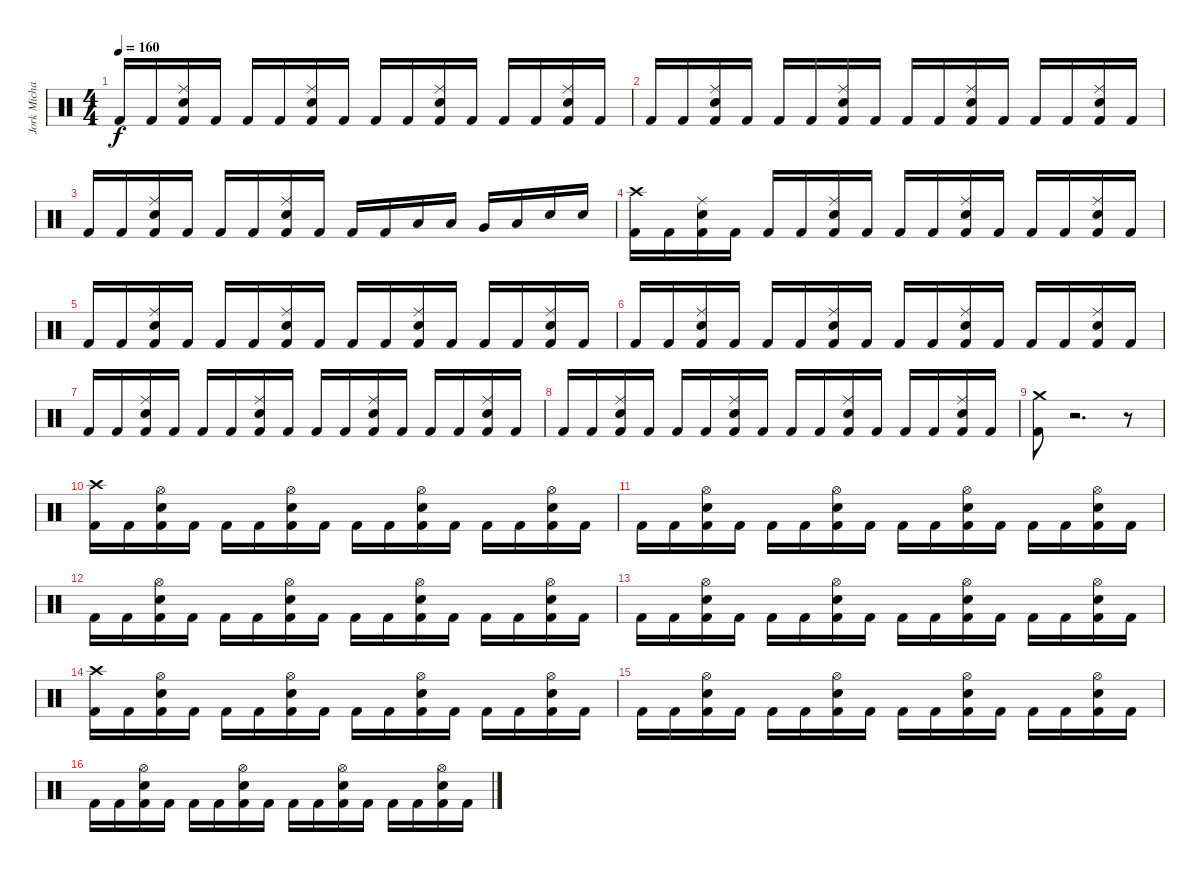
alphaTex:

\track ("Jork Michael" "Jork Micha") {instrument percussion}
\staff {score}
\articulation defaults
\ts (4 4)
\tempo 160
\clef neutral
\ks c "Kick (hit) 2".16{dy f} "Kick (hit) 2".16
("Ride (middle)" "Electric Snare (hit)" "Kick (hit) 2").16 "Kick (hit) 2".16 "Kick (hit) 2".16 "Kick (hit) 2".16 ("Ride (middle)" "Electric Snare (hit)" "Kick (hit) 2").16 "Kick (hit) 2".16 "Kick (hit) 2".16 "Kick (hit) 2".16 ("Ride (middle)" "Electric Snare (hit)" "Kick (hit) 2").16 "Kick (hit) 2".16 "Kick (hit) 2".16 "Kick (hit) 2".16 ("Ride (middle)" "Electric Snare (hit)" "Kick (hit) 2").16 "Kick (hit) 2".16 |
"Kick (hit) 2".16 "Kick (hit) 2".16 ("Ride (middle)" "Electric Snare (hit)" "Kick (hit) 2").16 "Kick (hit) 2".16 "Kick (hit) 2".16 "Kick (hit) 2".16 ("Ride (middle)" "Electric Snare (hit)" "Kick (hit) 2").16 "Kick (hit) 2".16 "Kick (hit) 2".16 "Kick (hit) 2".16 ("Ride (middle)" "Electric Snare (hit)" "Kick (hit) 2").16 "Kick (hit) 2".16 "Kick (hit) 2".16 "Kick (hit) 2".16 ("Ride (middle)" "Electric Snare (hit)" "Kick (hit) 2").16 "Kick (hit) 2".16 |
"Kick (hit) 2".16 "Kick (hit) 2".16 ("Ride (middle)" "Electric Snare (hit)" "Kick (hit) 2").16 "Kick (hit) 2".16 "Kick (hit) 2".16 "Kick (hit) 2".16 ("Ride (middle)" "Electric Snare (hit)" "Kick (hit) 2").16 "Kick (hit) 2".16 "Kick (hit) 2".16 "Kick (hit) 2".16 "Low Floor Tom (hit)".16 "Low Tom (hit)".16 "Very Low Tom (hit)".16 "Low Floor Tom (hit)".16 "Electric Snare (hit)".16 "Electric Snare (hit)".16 |
("Crash high (hit)" "Kick (hit) 2").16 "Kick (hit) 2".16 ("Ride (middle)" "Electric Snare (hit)" "Kick (hit) 2").16 "Kick (hit) 2".16 "Kick (hit) 2".16 "Kick (hit) 2".16 ("Ride (middle)" "Electric Snare (hit)" "Kick (hit) 2").16 "Kick (hit) 2".16 "Kick (hit) 2".16 "Kick (hit) 2".16 ("Ride (middle)" "Electric Snare (hit)" "Kick (hit) 2").16 "Kick (hit) 2".16 "Kick (hit) 2".16 "Kick (hit) 2".16 ("Ride (middle)" "Electric Snare (hit)" "Kick (hit) 2").16 "Kick (hit) 2".16 |
"Kick (hit) 2".16 "Kick (hit) 2".16 ("Ride (middle)" "Electric Snare (hit)" "Kick (hit) 2").16 "Kick (hit) 2".16 "Kick (hit) 2".16 "Kick (hit) 2".16 ("Ride (middle)" "Electric Snare (hit)" "Kick (hit) 2").16 "Kick (hit) 2".16 "Kick (hit) 2".16 "Kick (hit) 2".16 ("Ride (middle)" "Electric Snare (hit)" "Kick (hit) 2").16 "Kick (hit) 2".16 "Kick (hit) 2".16 "Kick (hit) 2".16 ("Ride (middle)" "Electric Snare (hit)" "Kick (hit) 2").16 "Kick (hit) 2".16 |
"Kick (hit) 2".16 "Kick (hit) 2".16 ("Ride (middle)" "Electric Snare (hit)" "Kick (hit) 2").16 "Kick (hit) 2".16 "Kick (hit) 2".16 "Kick (hit) 2".16 ("Ride (middle)" "Electric Snare (hit)" "Kick (hit) 2").16 "Kick (hit) 2".16 "Kick (hit) 2".16 "Kick (hit) 2".16 ("Ride (middle)" "Electric Snare (hit)" "Kick (hit) 2").16 "Kick (hit) 2".16 "Kick (hit) 2".16 "Kick (hit) 2".16 ("Ride (middle)" "Electric Snare (hit)" "Kick (hit) 2").16 "Kick (hit) 2".16 |
"Kick (hit) 2".16 "Kick (hit) 2".16 ("Ride (middle)" "Electric Snare (hit)" "Kick (hit) 2").16 "Kick (hit) 2".16 "Kick (hit) 2".16 "Kick (hit) 2".16 ("Ride (middle)" "Electric Snare (hit)" "Kick (hit) 2").16 "Kick (hit) 2".16 "Kick (hit) 2".16 "Kick (hit) 2".16 ("Ride (middle)" "Electric Snare (hit)" "Kick (hit) 2").16 "Kick (hit) 2".16 "Kick (hit) 2".16 "Kick (hit) 2".16 ("Ride (middle)" "Electric Snare (hit)" "Kick (hit) 2").16 "Kick (hit) 2".16 |
"Kick (hit) 2".16 "Kick (hit) 2".16 ("Ride (middle)" "Electric Snare (hit)" "Kick (hit) 2").16 "Kick (hit) 2".16 "Kick (hit) 2".16 "Kick (hit) 2".16 ("Ride (middle)" "Electric Snare (hit)" "Kick (hit) 2").16 "Kick (hit) 2".16 "Kick (hit) 2".16 "Kick (hit) 2".16 ("Ride (middle)" "Electric Snare (hit)" "Kick (hit) 2").16 "Kick (hit) 2".16 "Kick (hit) 2".16 "Kick (hit) 2".16 ("Ride (middle)" "Electric Snare (hit)" "Kick (hit) 2").16 "Kick (hit) 2".16 |
("Crash medium (hit)" "Kick (hit) 2").8 r.2{d} r.8 |
("Crash high (hit)" "Kick (hit) 2").16 "Kick (hit) 2".16 ("Hi-Hat (open)" "Electric Snare (hit)" "Kick (hit) 2").16 "Kick (hit) 2".16 "Kick (hit) 2".16 "Kick (hit) 2".16 ("Hi-Hat (open)" "Electric Snare (hit)" "Kick (hit) 2").16 "Kick (hit) 2".16 "Kick (hit) 2".16 "Kick (hit) 2".16 ("Hi-Hat (open)" "Electric Snare (hit)" "Kick (hit) 2").16 "Kick (hit) 2".16 "Kick (hit) 2".16 "Kick (hit) 2".16 ("Hi-Hat (open)" "Electric Snare (hit)" "Kick (hit) 2").16 "Kick (hit) 2".16 |
"Kick (hit) 2".16 "Kick (hit) 2".16 ("Hi-Hat (open)" "Electric Snare (hit)" "Kick (hit) 2").16 "Kick (hit) 2".16 "Kick (hit) 2".16 "Kick (hit) 2".16 ("Hi-Hat (open)" "Electric Snare (hit)" "Kick (hit) 2").16 "Kick (hit) 2".16 "Kick (hit) 2".16 "Kick (hit) 2".16 ("Hi-Hat (open)" "Electric Snare (hit)" "Kick (hit) 2").16 "Kick (hit) 2".16 "Kick (hit) 2".16 "Kick (hit) 2".16 ("Hi-Hat (open)" "Electric Snare (hit)" "Kick (hit) 2").16 "Kick (hit) 2".16 |
"Kick (hit) 2".16 "Kick (hit) 2".16 ("Hi-Hat (open)" "Electric Snare (hit)" "Kick (hit) 2").16 "Kick (hit) 2".16 "Kick (hit) 2".16 "Kick (hit) 2".16 ("Hi-Hat (open)" "Electric Snare (hit)" "Kick (hit) 2").16 "Kick (hit) 2".16 "Kick (hit) 2".16 "Kick (hit) 2".16 ("Hi-Hat (open)" "Electric Snare (hit)" "Kick (hit) 2").16 "Kick (hit) 2".16 "Kick (hit) 2".16 "Kick (hit) 2".16 ("Hi-Hat (open)" "Electric Snare (hit)" "Kick (hit) 2").16 "Kick (hit) 2".16 |
"Kick (hit) 2".16 "Kick (hit) 2".16 ("Hi-Hat (open)" "Electric Snare (hit)" "Kick (hit) 2").16 "Kick (hit) 2".16 "Kick (hit) 2".16 "Kick (hit) 2".16 ("Hi-Hat (open)" "Electric Snare (hit)" "Kick (hit) 2").16 "Kick (hit) 2".16 "Kick (hit) 2".16 "Kick (hit) 2".16 ("Hi-Hat (open)" "Electric Snare (hit)" "Kick (hit) 2").16 "Kick (hit) 2".16 "Kick (hit) 2".16 "Kick (hit) 2".16 ("Hi-Hat (open)" "Electric Snare (hit)" "Kick (hit) 2").16 "Kick (hit) 2".16 |
("Crash high (hit)" "Kick (hit) 2").16 "Kick (hit) 2".16 ("Hi-Hat (open)" "Electric Snare (hit)" "Kick (hit) 2").16 "Kick (hit) 2".16 "Kick (hit) 2".16 "Kick (hit) 2".16 ("Hi-Hat (open)" "Electric Snare (hit)" "Kick (hit) 2").16 "Kick (hit) 2".16 "Kick (hit) 2".16 "Kick (hit) 2".16 ("Hi-Hat (open)" "Electric Snare (hit)" "Kick (hit) 2").16 "Kick (hit) 2".16 "Kick (hit) 2".16 "Kick (hit) 2".16 ("Hi-Hat (open)" "Electric Snare (hit)" "Kick (hit) 2").16 "Kick (hit) 2".16 |
"Kick (hit) 2".16 "Kick (hit) 2".16 ("Hi-Hat (open)" "Electric Snare (hit)" "Kick (hit) 2").16 "Kick (hit) 2".16 "Kick (hit) 2".16 "Kick (hit) 2".16 ("Hi-Hat (open)" "Electric Snare (hit)" "Kick (hit) 2").16 "Kick (hit) 2".16 "Kick (hit) 2".16 "Kick (hit) 2".16 ("Hi-Hat (open)" "Electric Snare (hit)" "Kick (hit) 2").16 "Kick (hit) 2".16 "Kick (hit) 2".16 "Kick (hit) 2".16 ("Hi-Hat (open)" "Electric Snare (hit)" "Kick (hit) 2").16 "Kick (hit) 2".16 |
"Kick (hit) 2".16 "Kick (hit) 2".16 ("Hi-Hat (open)" "Electric Snare (hit)" "Kick (hit) 2").16 "Kick (hit) 2".16 "Kick (hit) 2".16 "Kick (hit) 2".16 ("Hi-Hat (open)" "Electric Snare (hit)" "Kick (hit) 2").16 "Kick (hit) 2".16 "Kick (hit) 2".16 "Kick (hit) 2".16 ("Hi-Hat (open)" "Electric Snare (hit)" "Kick (hit) 2").16 "Kick (hit) 2".16 "Kick (hit) 2".16 "Kick (hit) 2".16 ("Hi-Hat (open)" "Electric Snare (hit)" "Kick (hit) 2").16 "Kick (hit) 2".16
